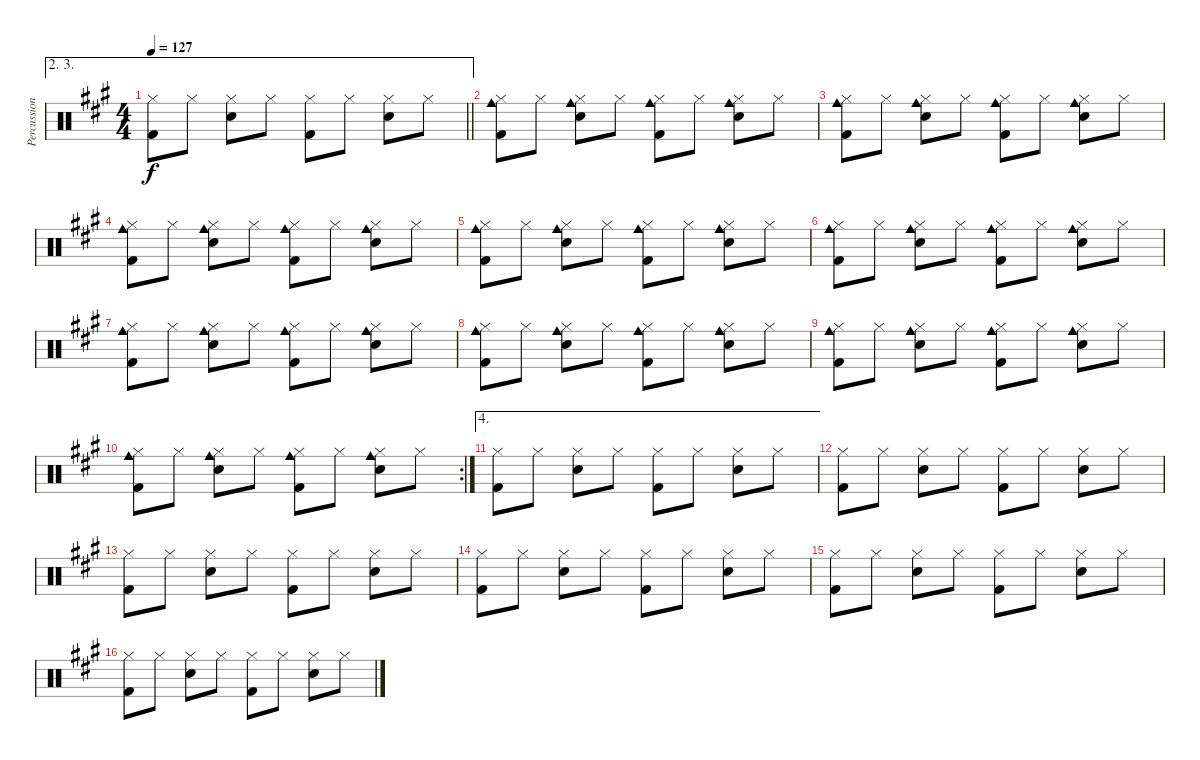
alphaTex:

\track ("Percussion" "Percussion") {instrument percussion}
\staff {score}
\articulation defaults
\ae (2 3)
\ts (4 4)
\tempo 127
\clef neutral
\barLineRight lightlight
\ks a
("Hi-Hat (closed)" "Kick (hit) 2").8{dy f} "Hi-Hat (closed)".8 ("Hi-Hat (closed)" "Snare (hit) 2").8 "Hi-Hat (closed)".8 ("Hi-Hat (closed)" "Kick (hit) 2").8 "Hi-Hat (closed)".8 ("Hi-Hat (closed)" "Snare (hit) 2").8 "Hi-Hat (closed)".8 |
("Hi-Hat (closed)" "Cowbell medium (hit)" "Kick (hit) 2").8 "Hi-Hat (closed)".8 ("Hi-Hat (closed)" "Cowbell medium (hit)" "Snare (hit) 2").8 "Hi-Hat (closed)".8 ("Hi-Hat (closed)" "Cowbell medium (hit)" "Kick (hit) 2").8 "Hi-Hat (closed)".8 ("Hi-Hat (closed)" "Cowbell medium (hit)" "Snare (hit) 2").8 "Hi-Hat (closed)".8 |
("Hi-Hat (closed)" "Cowbell medium (hit)" "Kick (hit) 2").8 "Hi-Hat (closed)".8 ("Hi-Hat (closed)" "Cowbell medium (hit)" "Snare (hit) 2").8 "Hi-Hat (closed)".8 ("Hi-Hat (closed)" "Cowbell medium (hit)" "Kick (hit) 2").8 "Hi-Hat (closed)".8 ("Hi-Hat (closed)" "Cowbell medium (hit)" "Snare (hit) 2").8 "Hi-Hat (closed)".8 |
("Hi-Hat (closed)" "Cowbell medium (hit)" "Kick (hit) 2").8 "Hi-Hat (closed)".8 ("Hi-Hat (closed)" "Cowbell medium (hit)" "Snare (hit) 2").8 "Hi-Hat (closed)".8 ("Hi-Hat (closed)" "Cowbell medium (hit)" "Kick (hit) 2").8 "Hi-Hat (closed)".8 ("Hi-Hat (closed)" "Cowbell medium (hit)" "Snare (hit) 2").8 "Hi-Hat (closed)".8 |
("Hi-Hat (closed)" "Cowbell medium (hit)" "Kick (hit) 2").8 "Hi-Hat (closed)".8 ("Hi-Hat (closed)" "Cowbell medium (hit)" "Snare (hit) 2").8 "Hi-Hat (closed)".8 ("Hi-Hat (closed)" "Cowbell medium (hit)" "Kick (hit) 2").8 "Hi-Hat (closed)".8 ("Hi-Hat (closed)" "Cowbell medium (hit)" "Snare (hit) 2").8 "Hi-Hat (closed)".8 |
("Hi-Hat (closed)" "Cowbell medium (hit)" "Kick (hit) 2").8 "Hi-Hat (closed)".8 ("Hi-Hat (closed)" "Cowbell medium (hit)" "Snare (hit) 2").8 "Hi-Hat (closed)".8 ("Hi-Hat (closed)" "Cowbell medium (hit)" "Kick (hit) 2").8 "Hi-Hat (closed)".8 ("Hi-Hat (closed)" "Cowbell medium (hit)" "Snare (hit) 2").8 "Hi-Hat (closed)".8 |
("Hi-Hat (closed)" "Cowbell medium (hit)" "Kick (hit) 2").8 "Hi-Hat (closed)".8 ("Hi-Hat (closed)" "Cowbell medium (hit)" "Snare (hit) 2").8 "Hi-Hat (closed)".8 ("Hi-Hat (closed)" "Cowbell medium (hit)" "Kick (hit) 2").8 "Hi-Hat (closed)".8 ("Hi-Hat (closed)" "Cowbell medium (hit)" "Snare (hit) 2").8 "Hi-Hat (closed)".8 |
("Hi-Hat (closed)" "Cowbell medium (hit)" "Kick (hit) 2").8 "Hi-Hat (closed)".8 ("Hi-Hat (closed)" "Cowbell medium (hit)" "Snare (hit) 2").8 "Hi-Hat (closed)".8 ("Hi-Hat (closed)" "Cowbell medium (hit)" "Kick (hit) 2").8 "Hi-Hat (closed)".8 ("Hi-Hat (closed)" "Cowbell medium (hit)" "Snare (hit) 2").8 "Hi-Hat (closed)".8 |
("Hi-Hat (closed)" "Cowbell medium (hit)" "Kick (hit) 2").8 "Hi-Hat (closed)".8 ("Hi-Hat (closed)" "Cowbell medium (hit)" "Snare (hit) 2").8 "Hi-Hat (closed)".8 ("Hi-Hat (closed)" "Cowbell medium (hit)" "Kick (hit) 2").8 "Hi-Hat (closed)".8 ("Hi-Hat (closed)" "Cowbell medium (hit)" "Snare (hit) 2").8 "Hi-Hat (closed)".8 |
\rc 2
("Hi-Hat (closed)" "Cowbell medium (hit)" "Kick (hit) 2").8 "Hi-Hat (closed)".8 ("Hi-Hat (closed)" "Cowbell medium (hit)" "Snare (hit) 2").8 "Hi-Hat (closed)".8 ("Hi-Hat (closed)" "Cowbell medium (hit)" "Kick (hit) 2").8 "Hi-Hat (closed)".8 ("Hi-Hat (closed)" "Cowbell medium (hit)" "Snare (hit) 2").8 "Hi-Hat (closed)".8 |
\ae 4
("Hi-Hat (closed)" "Kick (hit) 2").8 "Hi-Hat (closed)".8 ("Hi-Hat (closed)" "Snare (hit) 2").8 "Hi-Hat (closed)".8 ("Hi-Hat (closed)" "Kick (hit) 2").8 "Hi-Hat (closed)".8 ("Hi-Hat (closed)" "Snare (hit) 2").8 "Hi-Hat (closed)".8 |
("Hi-Hat (closed)" "Kick (hit) 2").8 "Hi-Hat (closed)".8 ("Hi-Hat (closed)" "Snare (hit) 2").8 "Hi-Hat (closed)".8 ("Hi-Hat (closed)" "Kick (hit) 2").8 "Hi-Hat (closed)".8 ("Hi-Hat (closed)" "Snare (hit) 2").8 "Hi-Hat (closed)".8 |
("Hi-Hat (closed)" "Kick (hit) 2").8 "Hi-Hat (closed)".8 ("Hi-Hat (closed)" "Snare (hit) 2").8 "Hi-Hat (closed)".8 ("Hi-Hat (closed)" "Kick (hit) 2").8 "Hi-Hat (closed)".8 ("Hi-Hat (closed)" "Snare (hit) 2").8 "Hi-Hat (closed)".8 |
("Hi-Hat (closed)" "Kick (hit) 2").8 "Hi-Hat (closed)".8 ("Hi-Hat (closed)" "Snare (hit) 2").8 "Hi-Hat (closed)".8 ("Hi-Hat (closed)" "Kick (hit) 2").8 "Hi-Hat (closed)".8 ("Hi-Hat (closed)" "Snare (hit) 2").8 "Hi-Hat (closed)".8 |
("Hi-Hat (closed)" "Kick (hit) 2").8 "Hi-Hat (closed)".8 ("Hi-Hat (closed)" "Snare (hit) 2").8 "Hi-Hat (closed)".8 ("Hi-Hat (closed)" "Kick (hit) 2").8 "Hi-Hat (closed)".8 ("Hi-Hat (closed)" "Snare (hit) 2").8 "Hi-Hat (closed)".8 |
("Hi-Hat (closed)" "Kick (hit) 2").8 "Hi-Hat (closed)".8 ("Hi-Hat (closed)" "Snare (hit) 2").8 "Hi-Hat (closed)".8 ("Hi-Hat (closed)" "Kick (hit) 2").8 "Hi-Hat (closed)".8 ("Hi-Hat (closed)" "Snare (hit) 2").8 "Hi-Hat (closed)".8
